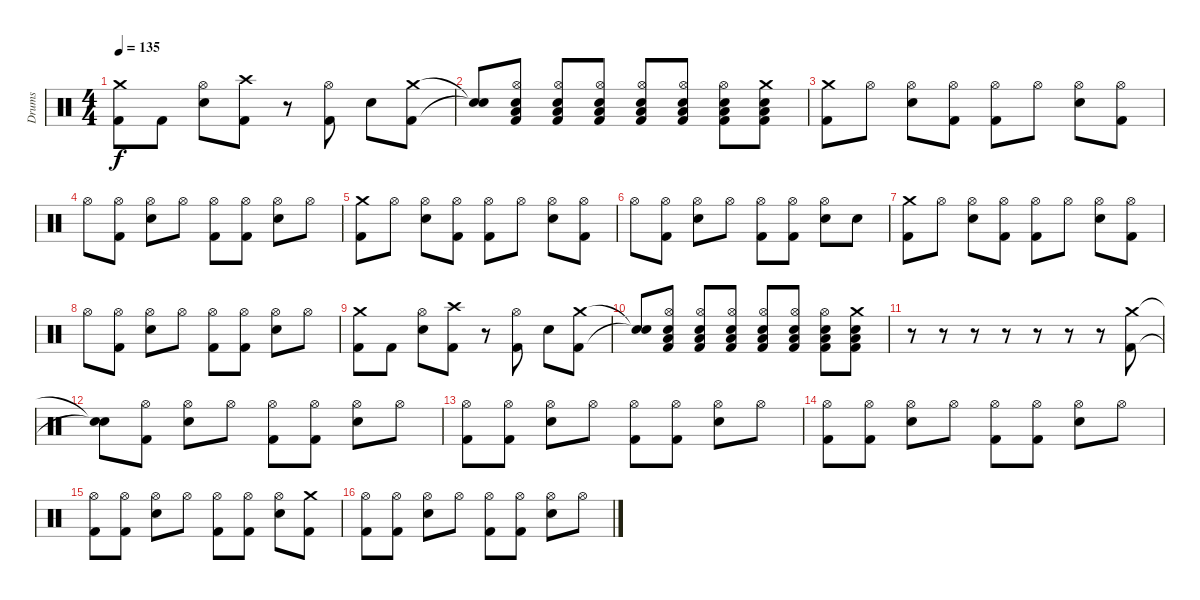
\track ("Drums" "Drums") {instrument percussion}
\staff {score}
\articulation defaults
\ts (4 4)
\tempo 135
\clef neutral
\ks c
("Crash medium (hit)" "Kick (hit) 2").8{dy f} "Kick (hit) 2".8 ("Hi-Hat (open)" "Electric Snare (hit)").8 ("Crash high (hit)" "Kick (hit) 2").8 r.8 ("Hi-Hat (open)" "Kick (hit) 2").8 "Electric Snare (hit)".8 ("Crash medium (hit)" "Kick (hit) 2").8 |
("Snare (hit)"{t} "Snare (hit)"{t}).8 ("Hi-Hat (open)" "Low Floor Tom (hit)" "Electric Snare (hit)" "Kick (hit) 2").8 ("Hi-Hat (open)" "Low Floor Tom (hit)" "Electric Snare (hit)" "Kick (hit) 2").8 ("Hi-Hat (open)" "Low Floor Tom (hit)" "Electric Snare (hit)" "Kick (hit) 2").8 ("Hi-Hat (open)" "Low Floor Tom (hit)" "Electric Snare (hit)" "Kick (hit) 2").8 ("Hi-Hat (open)" "Low Floor Tom (hit)" "Electric Snare (hit)" "Kick (hit) 2").8 ("Hi-Hat (open)" "Low Floor Tom (hit)" "Electric Snare (hit)" "Kick (hit) 2").8 ("Crash medium (hit)" "Low Floor Tom (hit)" "Electric Snare (hit)" "Kick (hit) 2").8 |
("Crash medium (hit)" "Kick (hit) 2").8 "Hi-Hat (open)".8 ("Hi-Hat (open)" "Electric Snare (hit)").8 ("Hi-Hat (open)" "Kick (hit) 2").8 ("Hi-Hat (open)" "Kick (hit) 2").8 "Hi-Hat (open)".8 ("Hi-Hat (open)" "Electric Snare (hit)").8 ("Hi-Hat (open)" "Kick (hit) 2").8 |
"Hi-Hat (open)".8 ("Hi-Hat (open)" "Kick (hit) 2").8 ("Hi-Hat (open)" "Electric Snare (hit)").8 "Hi-Hat (open)".8 ("Hi-Hat (open)" "Kick (hit) 2").8 ("Hi-Hat (open)" "Kick (hit) 2").8 ("Hi-Hat (open)" "Electric Snare (hit)").8 "Hi-Hat (open)".8 |
("Crash medium (hit)" "Kick (hit) 2").8 "Hi-Hat (open)".8 ("Hi-Hat (open)" "Electric Snare (hit)").8 ("Hi-Hat (open)" "Kick (hit) 2").8 ("Hi-Hat (open)" "Kick (hit) 2").8 "Hi-Hat (open)".8 ("Hi-Hat (open)" "Electric Snare (hit)").8 ("Hi-Hat (open)" "Kick (hit) 2").8 |
"Hi-Hat (open)".8 ("Hi-Hat (open)" "Kick (hit) 2").8 ("Hi-Hat (open)" "Electric Snare (hit)").8 "Hi-Hat (open)".8 ("Hi-Hat (open)" "Kick (hit) 2").8 ("Hi-Hat (open)" "Kick (hit) 2").8 ("Hi-Hat (open)" "Electric Snare (hit)").8 "Electric Snare (hit)".8 |
("Crash medium (hit)" "Kick (hit) 2").8 "Hi-Hat (open)".8 ("Hi-Hat (open)" "Electric Snare (hit)").8 ("Hi-Hat (open)" "Kick (hit) 2").8 ("Hi-Hat (open)" "Kick (hit) 2").8 "Hi-Hat (open)".8 ("Hi-Hat (open)" "Electric Snare (hit)").8 ("Hi-Hat (open)" "Kick (hit) 2").8 |
"Hi-Hat (open)".8 ("Hi-Hat (open)" "Kick (hit) 2").8 ("Hi-Hat (open)" "Electric Snare (hit)").8 "Hi-Hat (open)".8 ("Hi-Hat (open)" "Kick (hit) 2").8 ("Hi-Hat (open)" "Kick (hit) 2").8 ("Hi-Hat (open)" "Electric Snare (hit)").8 "Hi-Hat (open)".8 |
("Crash medium (hit)" "Kick (hit) 2").8 "Kick (hit) 2".8 ("Hi-Hat (open)" "Electric Snare (hit)").8 ("Crash high (hit)" "Kick (hit) 2").8 r.8 ("Hi-Hat (open)" "Kick (hit) 2").8 "Electric Snare (hit)".8 ("Crash medium (hit)" "Kick (hit) 2").8 |
("Snare (hit)"{t} "Snare (hit)"{t}).8 ("Hi-Hat (open)" "Low Floor Tom (hit)" "Electric Snare (hit)" "Kick (hit) 2").8 ("Hi-Hat (open)" "Low Floor Tom (hit)" "Electric Snare (hit)" "Kick (hit) 2").8 ("Hi-Hat (open)" "Low Floor Tom (hit)" "Electric Snare (hit)" "Kick (hit) 2").8 ("Hi-Hat (open)" "Low Floor Tom (hit)" "Electric Snare (hit)" "Kick (hit) 2").8 ("Hi-Hat (open)" "Low Floor Tom (hit)" "Electric Snare (hit)" "Kick (hit) 2").8 ("Hi-Hat (open)" "Low Floor Tom (hit)" "Electric Snare (hit)" "Kick (hit) 2").8 ("Crash medium (hit)" "Low Floor Tom (hit)" "Electric Snare (hit)" "Kick (hit) 2").8 |
r.8 r.8 r.8 r.8 r.8 r.8 r.8 ("Kick (hit) 2" "Crash medium (hit)").8 |
("Snare (hit)"{t} "Snare (hit)"{t}).8 ("Hi-Hat (open)" "Kick (hit) 2").8 ("Hi-Hat (open)" "Electric Snare (hit)").8 "Hi-Hat (open)".8 ("Hi-Hat (open)" "Kick (hit) 2").8 ("Hi-Hat (open)" "Kick (hit) 2").8 ("Hi-Hat (open)" "Electric Snare (hit)").8 "Hi-Hat (open)".8 |
("Hi-Hat (open)" "Kick (hit) 2").8 ("Hi-Hat (open)" "Kick (hit) 2").8 ("Hi-Hat (open)" "Electric Snare (hit)").8 "Hi-Hat (open)".8 ("Hi-Hat (open)" "Kick (hit) 2").8 ("Hi-Hat (open)" "Kick (hit) 2").8 ("Hi-Hat (open)" "Electric Snare (hit)").8 "Hi-Hat (open)".8 |
("Hi-Hat (open)" "Kick (hit) 2").8 ("Hi-Hat (open)" "Kick (hit) 2").8 ("Hi-Hat (open)" "Electric Snare (hit)").8 "Hi-Hat (open)".8 ("Hi-Hat (open)" "Kick (hit) 2").8 ("Hi-Hat (open)" "Kick (hit) 2").8 ("Hi-Hat (open)" "Electric Snare (hit)").8 "Hi-Hat (open)".8 |
("Hi-Hat (open)" "Kick (hit) 2").8 ("Hi-Hat (open)" "Kick (hit) 2").8 ("Hi-Hat (open)" "Electric Snare (hit)").8 "Hi-Hat (open)".8 ("Hi-Hat (open)" "Kick (hit) 2").8 ("Hi-Hat (open)" "Kick (hit) 2").8 ("Hi-Hat (open)" "Electric Snare (hit)").8 ("Crash medium (hit)" "Kick (hit) 2").8 |
("Hi-Hat (open)" "Kick (hit) 2").8 ("Hi-Hat (open)" "Kick (hit) 2").8 ("Hi-Hat (open)" "Electric Snare (hit)").8 "Hi-Hat (open)".8 ("Hi-Hat (open)" "Kick (hit) 2").8 ("Hi-Hat (open)" "Kick (hit) 2").8 ("Hi-Hat (open)" "Electric Snare (hit)").8 "Hi-Hat (open)".8
